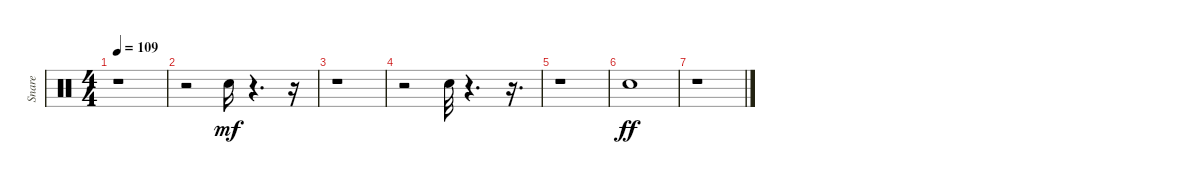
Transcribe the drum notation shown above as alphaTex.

\track ("Snare" "Snare") {instrument percussion}
\staff {score}
\articulation defaults
\ts (4 4)
\tempo 109
\clef neutral
\ks c
r.1{dy fff} |
r.2 "Electric Snare (hit)".16{dy mf} r.4{d} r.16 |
r.1 |
r.2 "Electric Snare (hit)".32 r.4{d} r.16{d} |
r.1 |
"Electric Snare (hit)".1{dy ff} |
r.1
